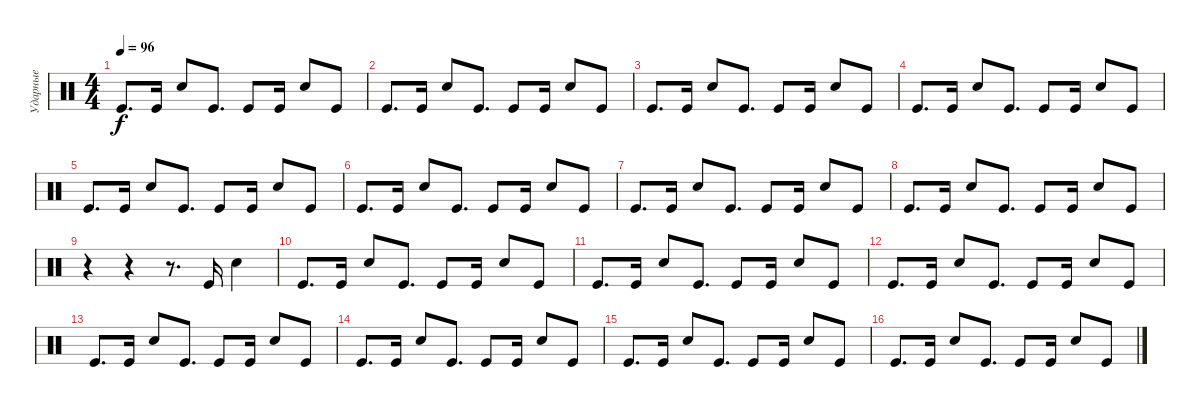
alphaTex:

\track ("Ударные" "Ударные") {instrument percussion}
\staff {score}
\articulation defaults
\ts (4 4)
\tempo 96
\clef neutral
\ks c "Kick (hit)".8{d dy f} "Kick (hit)".16 "Electric Snare (hit)".8 "Kick (hit)".8{d} "Kick (hit)".8 "Kick (hit)".16 "Electric Snare (hit)".8 "Kick (hit)".8
|
"Kick (hit)".8{d} "Kick (hit)".16 "Electric Snare (hit)".8 "Kick (hit)".8{d} "Kick (hit)".8 "Kick (hit)".16 "Electric Snare (hit)".8 "Kick (hit)".8 |
"Kick (hit)".8{d} "Kick (hit)".16 "Electric Snare (hit)".8 "Kick (hit)".8{d} "Kick (hit)".8 "Kick (hit)".16 "Electric Snare (hit)".8 "Kick (hit)".8 |
"Kick (hit)".8{d} "Kick (hit)".16 "Electric Snare (hit)".8 "Kick (hit)".8{d} "Kick (hit)".8 "Kick (hit)".16 "Electric Snare (hit)".8 "Kick (hit)".8 |
"Kick (hit)".8{d} "Kick (hit)".16 "Electric Snare (hit)".8 "Kick (hit)".8{d} "Kick (hit)".8 "Kick (hit)".16 "Electric Snare (hit)".8 "Kick (hit)".8 |
"Kick (hit)".8{d} "Kick (hit)".16 "Electric Snare (hit)".8 "Kick (hit)".8{d} "Kick (hit)".8 "Kick (hit)".16 "Electric Snare (hit)".8 "Kick (hit)".8 |
"Kick (hit)".8{d} "Kick (hit)".16 "Electric Snare (hit)".8 "Kick (hit)".8{d} "Kick (hit)".8 "Kick (hit)".16 "Electric Snare (hit)".8 "Kick (hit)".8 |
"Kick (hit)".8{d} "Kick (hit)".16 "Electric Snare (hit)".8 "Kick (hit)".8{d} "Kick (hit)".8 "Kick (hit)".16 "Electric Snare (hit)".8 "Kick (hit)".8 |
r.4 r.4 r.8{d} "Kick (hit)".16 "Electric Snare (hit)".4 |
"Kick (hit)".8{d} "Kick (hit)".16 "Electric Snare (hit)".8 "Kick (hit)".8{d} "Kick (hit)".8 "Kick (hit)".16 "Electric Snare (hit)".8 "Kick (hit)".8 |
"Kick (hit)".8{d} "Kick (hit)".16 "Electric Snare (hit)".8 "Kick (hit)".8{d} "Kick (hit)".8 "Kick (hit)".16 "Electric Snare (hit)".8 "Kick (hit)".8 |
"Kick (hit)".8{d} "Kick (hit)".16 "Electric Snare (hit)".8 "Kick (hit)".8{d} "Kick (hit)".8 "Kick (hit)".16 "Electric Snare (hit)".8 "Kick (hit)".8 |
"Kick (hit)".8{d} "Kick (hit)".16 "Electric Snare (hit)".8 "Kick (hit)".8{d} "Kick (hit)".8 "Kick (hit)".16 "Electric Snare (hit)".8 "Kick (hit)".8 |
"Kick (hit)".8{d} "Kick (hit)".16 "Electric Snare (hit)".8 "Kick (hit)".8{d} "Kick (hit)".8 "Kick (hit)".16 "Electric Snare (hit)".8 "Kick (hit)".8 |
"Kick (hit)".8{d} "Kick (hit)".16 "Electric Snare (hit)".8 "Kick (hit)".8{d} "Kick (hit)".8 "Kick (hit)".16 "Electric Snare (hit)".8 "Kick (hit)".8 |
"Kick (hit)".8{d} "Kick (hit)".16 "Electric Snare (hit)".8 "Kick (hit)".8{d} "Kick (hit)".8 "Kick (hit)".16 "Electric Snare (hit)".8 "Kick (hit)".8
